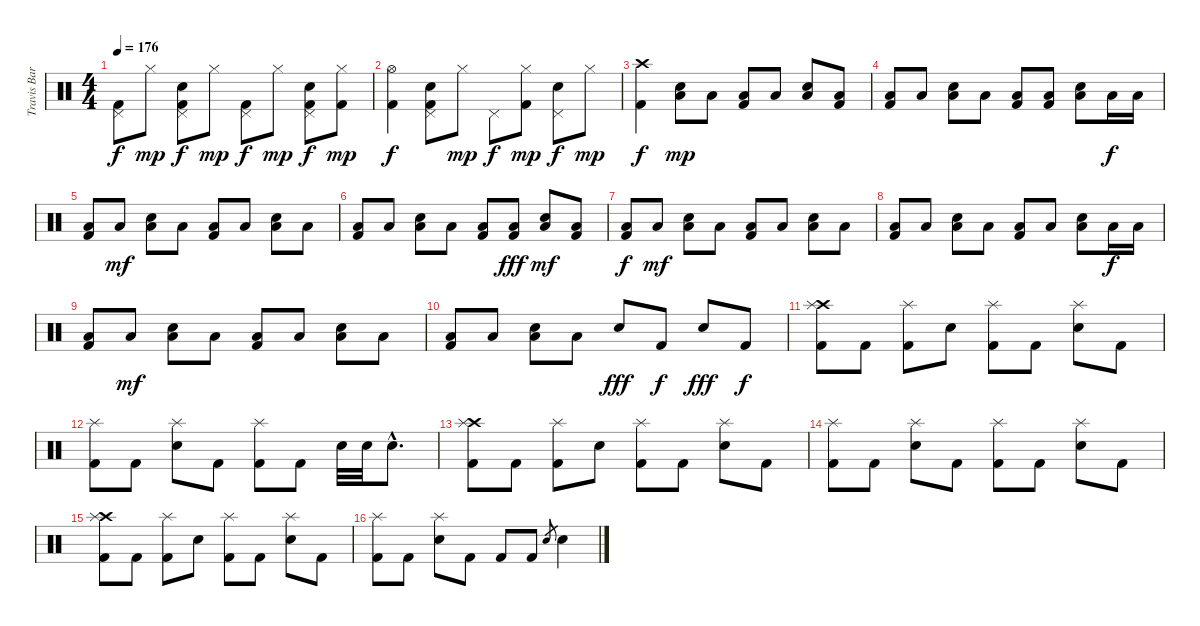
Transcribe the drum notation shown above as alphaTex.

\track ("Travis Barker - Drums" "Travis Bar") {instrument percussion}
\staff {score}
\articulation defaults
\ts (4 4)
\tempo 176
\clef neutral
\ks c
("Pedal Hi-Hat (hit)" "Kick (hit) 2").8{dy f} "Hi-Hat (closed)".8{dy mp} ("Pedal Hi-Hat (hit)" "Electric Snare (hit)" "Kick (hit) 2").8{dy f} "Hi-Hat (closed)".8{dy mp} ("Pedal Hi-Hat (hit)" "Kick (hit) 2").8{dy f} "Hi-Hat (closed)".8{dy mp} ("Pedal Hi-Hat (hit)" "Electric Snare (hit)" "Kick (hit) 2").8{dy f} ("Hi-Hat (closed)" "Kick (hit) 2").8{dy mp} |
("Hi-Hat (open)" "Kick (hit) 2").4{dy f} ("Pedal Hi-Hat (hit)" "Electric Snare (hit)" "Kick (hit) 2").8 "Hi-Hat (closed)".8{dy mp} "Pedal Hi-Hat (hit)".8{dy f} ("Hi-Hat (closed)" "Kick (hit) 2").8{dy mp} ("Pedal Hi-Hat (hit)" "Electric Snare (hit)").8{dy f} "Hi-Hat (closed)".8{dy mp} |
("Crash high (hit)" "Kick (hit) 2").4{dy f} ("Low Floor Tom (hit)" "Electric Snare (hit)").8{dy mp} "Low Floor Tom (hit)".8 ("Low Floor Tom (hit)" "Kick (hit) 2").8 "Low Floor Tom (hit)".8 ("Low Floor Tom (hit)" "Electric Snare (hit)").8 ("Low Floor Tom (hit)" "Kick (hit) 2").8 |
("Low Floor Tom (hit)" "Kick (hit) 2").8 "Low Floor Tom (hit)".8 ("Low Floor Tom (hit)" "Electric Snare (hit)").8 "Low Floor Tom (hit)".8 ("Low Floor Tom (hit)" "Kick (hit) 2").8 ("Low Floor Tom (hit)" "Kick (hit) 2").8 ("Low Floor Tom (hit)" "Electric Snare (hit)").8 "Low Tom (hit)".16{dy f} "Low Tom (hit)".16 |
("Low Floor Tom (hit)" "Kick (hit) 2").8 "Low Floor Tom (hit)".8{dy mf} ("Low Floor Tom (hit)" "Electric Snare (hit)").8 "Low Floor Tom (hit)".8 ("Low Floor Tom (hit)" "Kick (hit) 2").8 "Low Floor Tom (hit)".8 ("Low Floor Tom (hit)" "Electric Snare (hit)").8 "Low Floor Tom (hit)".8 |
("Low Floor Tom (hit)" "Kick (hit) 2").8 "Low Floor Tom (hit)".8 ("Low Floor Tom (hit)" "Electric Snare (hit)").8 "Low Floor Tom (hit)".8 ("Low Floor Tom (hit)" "Kick (hit) 2").8 ("Low Tom (hit)" "Kick (hit) 2").8{dy fff} ("Low Floor Tom (hit)" "Electric Snare (hit)").8{dy mf} ("Low Floor Tom (hit)" "Kick (hit) 2").8 |
("Low Floor Tom (hit)" "Kick (hit) 2").8{dy f} "Low Floor Tom (hit)".8{dy mf} ("Low Floor Tom (hit)" "Electric Snare (hit)").8 "Low Floor Tom (hit)".8 ("Low Floor Tom (hit)" "Kick (hit) 2").8 "Low Floor Tom (hit)".8 ("Low Floor Tom (hit)" "Electric Snare (hit)").8 "Low Floor Tom (hit)".8 |
("Low Floor Tom (hit)" "Kick (hit) 2").8 "Low Floor Tom (hit)".8 ("Low Floor Tom (hit)" "Electric Snare (hit)").8 "Low Floor Tom (hit)".8 ("Low Floor Tom (hit)" "Kick (hit) 2").8 "Low Floor Tom (hit)".8 ("Low Floor Tom (hit)" "Electric Snare (hit)").8 "Low Tom (hit)".16{dy f} "Low Tom (hit)".16 |
("Low Floor Tom (hit)" "Kick (hit) 2").8 "Low Floor Tom (hit)".8{dy mf} ("Low Floor Tom (hit)" "Electric Snare (hit)").8 "Low Floor Tom (hit)".8 ("Low Floor Tom (hit)" "Kick (hit) 2").8 "Low Floor Tom (hit)".8 ("Low Floor Tom (hit)" "Electric Snare (hit)").8 "Low Floor Tom (hit)".8 |
("Low Floor Tom (hit)" "Kick (hit) 2").8 "Low Floor Tom (hit)".8 ("Low Floor Tom (hit)" "Electric Snare (hit)").8 "Low Floor Tom (hit)".8 "Electric Snare (hit)".8{dy fff} "Kick (hit) 2".8{dy f} "Electric Snare (hit)".8{dy fff} "Kick (hit) 2".8{dy f} |
("Crash high (hit)" "Splash (hit)" "Kick (hit) 2").8 "Kick (hit) 2".8 ("Splash (hit)" "Kick (hit) 2").8 "Electric Snare (hit)".8 ("Splash (hit)" "Kick (hit) 2").8 "Kick (hit) 2".8 ("Splash (hit)" "Electric Snare (hit)").8 "Kick (hit) 2".8 |
("Splash (hit)" "Kick (hit) 2").8 "Kick (hit) 2".8 ("Splash (hit)" "Electric Snare (hit)").8 "Kick (hit) 2".8 ("Splash (hit)" "Kick (hit) 2").8 "Kick (hit) 2".8 "Electric Snare (hit)".32 "Electric Snare (hit)".32 "Electric Snare (hit)"{hac}.8{d} |
("Crash high (hit)" "Splash (hit)" "Kick (hit) 2").8 "Kick (hit) 2".8 ("Splash (hit)" "Kick (hit) 2").8 "Electric Snare (hit)".8 ("Splash (hit)" "Kick (hit) 2").8 "Kick (hit) 2".8 ("Splash (hit)" "Electric Snare (hit)").8 "Kick (hit) 2".8 |
("Splash (hit)" "Kick (hit) 2").8 "Kick (hit) 2".8 ("Splash (hit)" "Electric Snare (hit)").8 "Kick (hit) 2".8 ("Splash (hit)" "Kick (hit) 2").8 "Kick (hit) 2".8 ("Splash (hit)" "Electric Snare (hit)").8 "Kick (hit) 2".8 |
("Crash high (hit)" "Splash (hit)" "Kick (hit) 2").8 "Kick (hit) 2".8 ("Splash (hit)" "Kick (hit) 2").8 "Electric Snare (hit)".8 ("Splash (hit)" "Kick (hit) 2").8 "Kick (hit) 2".8 ("Splash (hit)" "Electric Snare (hit)").8 "Kick (hit) 2".8 |
("Splash (hit)" "Kick (hit) 2").8 "Kick (hit) 2".8 ("Splash (hit)" "Electric Snare (hit)").8 "Kick (hit) 2".8 "Kick (hit) 2".8 "Kick (hit) 2".8 "Electric Snare (hit)"{sl}.8{gr} "Electric Snare (hit)".4
